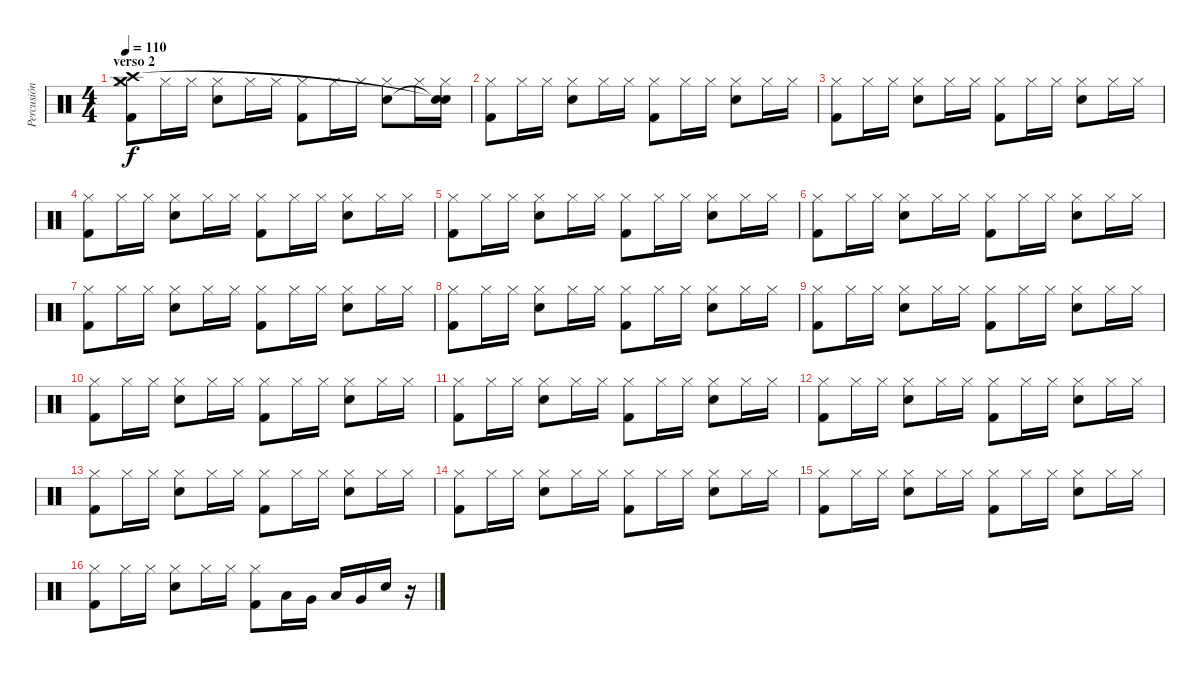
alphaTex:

\track ("Percusión" "Percusión") {instrument percussion}
\staff {score}
\articulation defaults
\ts (4 4)
\section ("" "verso 2")
\tempo 110
\clef neutral
\ks c
("Hi-Hat (closed)" "Kick (hit) 2" "Crash high (hit)" "Crash medium (hit)").8{dy f} "Hi-Hat (closed)".16 "Hi-Hat (closed)".16 ("Hi-Hat (closed)" "Snare (hit) 2").8 "Hi-Hat (closed)".16 "Hi-Hat (closed)".16 ("Hi-Hat (closed)" "Kick (hit) 2").8 "Hi-Hat (closed)".16 "Hi-Hat (closed)".16 ("Hi-Hat (closed)" "Snare (hit) 2").8 "Hi-Hat (closed)".16 ("Hi-Hat (closed)" "Snare (hit)"{t} "Snare (hit)"{t}).16 |
("Hi-Hat (closed)" "Kick (hit) 2").8 "Hi-Hat (closed)".16 "Hi-Hat (closed)".16 ("Hi-Hat (closed)" "Snare (hit) 2").8 "Hi-Hat (closed)".16 "Hi-Hat (closed)".16 ("Hi-Hat (closed)" "Kick (hit) 2").8 "Hi-Hat (closed)".16 "Hi-Hat (closed)".16 ("Hi-Hat (closed)" "Snare (hit) 2").8 "Hi-Hat (closed)".16 "Hi-Hat (closed)".16 |
("Hi-Hat (closed)" "Kick (hit) 2").8 "Hi-Hat (closed)".16 "Hi-Hat (closed)".16 ("Hi-Hat (closed)" "Snare (hit) 2").8 "Hi-Hat (closed)".16 "Hi-Hat (closed)".16 ("Hi-Hat (closed)" "Kick (hit) 2").8 "Hi-Hat (closed)".16 "Hi-Hat (closed)".16 ("Hi-Hat (closed)" "Snare (hit) 2").8 "Hi-Hat (closed)".16 "Hi-Hat (closed)".16 |
("Hi-Hat (closed)" "Kick (hit) 2").8 "Hi-Hat (closed)".16 "Hi-Hat (closed)".16 ("Hi-Hat (closed)" "Snare (hit) 2").8 "Hi-Hat (closed)".16 "Hi-Hat (closed)".16 ("Hi-Hat (closed)" "Kick (hit) 2").8 "Hi-Hat (closed)".16 "Hi-Hat (closed)".16 ("Hi-Hat (closed)" "Snare (hit) 2").8 "Hi-Hat (closed)".16 "Hi-Hat (closed)".16 |
("Hi-Hat (closed)" "Kick (hit) 2").8 "Hi-Hat (closed)".16 "Hi-Hat (closed)".16 ("Hi-Hat (closed)" "Snare (hit) 2").8 "Hi-Hat (closed)".16 "Hi-Hat (closed)".16 ("Hi-Hat (closed)" "Kick (hit) 2").8 "Hi-Hat (closed)".16 "Hi-Hat (closed)".16 ("Hi-Hat (closed)" "Snare (hit) 2").8 "Hi-Hat (closed)".16 "Hi-Hat (closed)".16 |
("Hi-Hat (closed)" "Kick (hit) 2").8 "Hi-Hat (closed)".16 "Hi-Hat (closed)".16 ("Hi-Hat (closed)" "Snare (hit) 2").8 "Hi-Hat (closed)".16 "Hi-Hat (closed)".16 ("Hi-Hat (closed)" "Kick (hit) 2").8 "Hi-Hat (closed)".16 "Hi-Hat (closed)".16 ("Hi-Hat (closed)" "Snare (hit) 2").8 "Hi-Hat (closed)".16 "Hi-Hat (closed)".16 |
("Hi-Hat (closed)" "Kick (hit) 2").8 "Hi-Hat (closed)".16 "Hi-Hat (closed)".16 ("Hi-Hat (closed)" "Snare (hit) 2").8 "Hi-Hat (closed)".16 "Hi-Hat (closed)".16 ("Hi-Hat (closed)" "Kick (hit) 2").8 "Hi-Hat (closed)".16 "Hi-Hat (closed)".16 ("Hi-Hat (closed)" "Snare (hit) 2").8 "Hi-Hat (closed)".16 "Hi-Hat (closed)".16 |
("Hi-Hat (closed)" "Kick (hit) 2").8 "Hi-Hat (closed)".16 "Hi-Hat (closed)".16 ("Hi-Hat (closed)" "Snare (hit) 2").8 "Hi-Hat (closed)".16 "Hi-Hat (closed)".16 ("Hi-Hat (closed)" "Kick (hit) 2").8 "Hi-Hat (closed)".16 "Hi-Hat (closed)".16 ("Hi-Hat (closed)" "Snare (hit) 2").8 "Hi-Hat (closed)".16 "Hi-Hat (closed)".16 |
("Hi-Hat (closed)" "Kick (hit) 2").8 "Hi-Hat (closed)".16 "Hi-Hat (closed)".16 ("Hi-Hat (closed)" "Snare (hit) 2").8 "Hi-Hat (closed)".16 "Hi-Hat (closed)".16 ("Hi-Hat (closed)" "Kick (hit) 2").8 "Hi-Hat (closed)".16 "Hi-Hat (closed)".16 ("Hi-Hat (closed)" "Snare (hit) 2").8 "Hi-Hat (closed)".16 "Hi-Hat (closed)".16 |
("Hi-Hat (closed)" "Kick (hit) 2").8 "Hi-Hat (closed)".16 "Hi-Hat (closed)".16 ("Hi-Hat (closed)" "Snare (hit) 2").8 "Hi-Hat (closed)".16 "Hi-Hat (closed)".16 ("Hi-Hat (closed)" "Kick (hit) 2").8 "Hi-Hat (closed)".16 "Hi-Hat (closed)".16 ("Hi-Hat (closed)" "Snare (hit) 2").8 "Hi-Hat (closed)".16 "Hi-Hat (closed)".16 |
("Hi-Hat (closed)" "Kick (hit) 2").8 "Hi-Hat (closed)".16 "Hi-Hat (closed)".16 ("Hi-Hat (closed)" "Snare (hit) 2").8 "Hi-Hat (closed)".16 "Hi-Hat (closed)".16 ("Hi-Hat (closed)" "Kick (hit) 2").8 "Hi-Hat (closed)".16 "Hi-Hat (closed)".16 ("Hi-Hat (closed)" "Snare (hit) 2").8 "Hi-Hat (closed)".16 "Hi-Hat (closed)".16 |
("Hi-Hat (closed)" "Kick (hit) 2").8 "Hi-Hat (closed)".16 "Hi-Hat (closed)".16 ("Hi-Hat (closed)" "Snare (hit) 2").8 "Hi-Hat (closed)".16 "Hi-Hat (closed)".16 ("Hi-Hat (closed)" "Kick (hit) 2").8 "Hi-Hat (closed)".16 "Hi-Hat (closed)".16 ("Hi-Hat (closed)" "Snare (hit) 2").8 "Hi-Hat (closed)".16 "Hi-Hat (closed)".16 |
("Hi-Hat (closed)" "Kick (hit) 2").8 "Hi-Hat (closed)".16 "Hi-Hat (closed)".16 ("Hi-Hat (closed)" "Snare (hit) 2").8 "Hi-Hat (closed)".16 "Hi-Hat (closed)".16 ("Hi-Hat (closed)" "Kick (hit) 2").8 "Hi-Hat (closed)".16 "Hi-Hat (closed)".16 ("Hi-Hat (closed)" "Snare (hit) 2").8 "Hi-Hat (closed)".16 "Hi-Hat (closed)".16 |
("Hi-Hat (closed)" "Kick (hit) 2").8 "Hi-Hat (closed)".16 "Hi-Hat (closed)".16 ("Hi-Hat (closed)" "Snare (hit) 2").8 "Hi-Hat (closed)".16 "Hi-Hat (closed)".16 ("Hi-Hat (closed)" "Kick (hit) 2").8 "Hi-Hat (closed)".16 "Hi-Hat (closed)".16 ("Hi-Hat (closed)" "Snare (hit) 2").8 "Hi-Hat (closed)".16 "Hi-Hat (closed)".16 |
("Hi-Hat (closed)" "Kick (hit) 2").8 "Hi-Hat (closed)".16 "Hi-Hat (closed)".16 ("Hi-Hat (closed)" "Snare (hit) 2").8 "Hi-Hat (closed)".16 "Hi-Hat (closed)".16 ("Hi-Hat (closed)" "Kick (hit) 2").8 "Hi-Hat (closed)".16 "Hi-Hat (closed)".16 ("Hi-Hat (closed)" "Snare (hit) 2").8 "Hi-Hat (closed)".16 "Hi-Hat (closed)".16 |
("Hi-Hat (closed)" "Kick (hit) 2").8 "Hi-Hat (closed)".16 "Hi-Hat (closed)".16 ("Hi-Hat (closed)" "Snare (hit) 2").8 "Hi-Hat (closed)".16 "Hi-Hat (closed)".16 ("Hi-Hat (closed)" "Kick (hit) 2").8 "Low Floor Tom (hit)".16 "Very Low Tom (hit)".16 "Low Floor Tom (hit)".16 "Very Low Tom (hit)".16 "Snare (hit) 2".16 r.16
